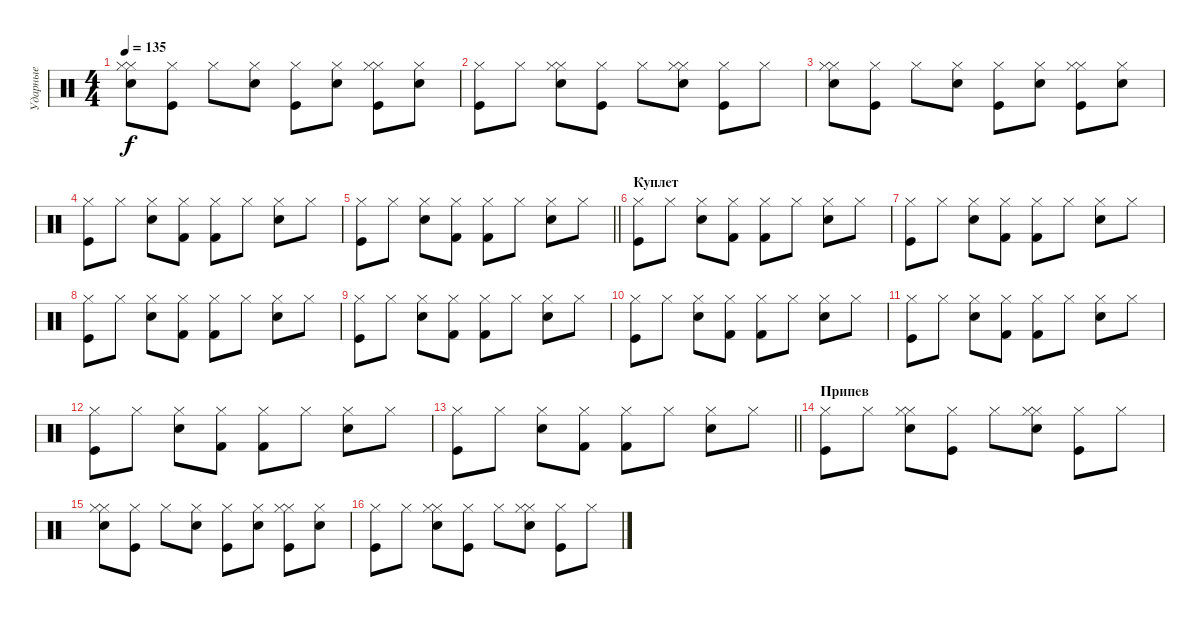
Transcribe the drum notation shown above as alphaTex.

\track ("Ударные" "Ударные") {instrument percussion}
\staff {score}
\articulation defaults
\ts (4 4)
\tempo 135
\clef neutral
\ks c
("Snare (hit) 2" "Hi-Hat (closed)" "Hi-Hat (closed)").8{dy f} ("Hi-Hat (closed)" "Kick (hit)").8 "Hi-Hat (closed)".8 ("Hi-Hat (closed)" "Snare (hit) 2").8 ("Hi-Hat (closed)" "Kick (hit)").8 ("Hi-Hat (closed)" "Snare (hit) 2").8 ("Kick (hit)" "Hi-Hat (closed)" "Hi-Hat (closed)").8 ("Snare (hit) 2" "Hi-Hat (closed)").8 |
("Hi-Hat (closed)" "Kick (hit)").8 "Hi-Hat (closed)".8 ("Snare (hit) 2" "Hi-Hat (closed)" "Hi-Hat (closed)").8 ("Hi-Hat (closed)" "Kick (hit)").8 "Hi-Hat (closed)".8 ("Snare (hit) 2" "Hi-Hat (closed)" "Hi-Hat (closed)").8 ("Hi-Hat (closed)" "Kick (hit)").8 "Hi-Hat (closed)".8 |
("Snare (hit) 2" "Hi-Hat (closed)" "Hi-Hat (closed)").8 ("Hi-Hat (closed)" "Kick (hit)").8 "Hi-Hat (closed)".8 ("Hi-Hat (closed)" "Snare (hit) 2").8 ("Hi-Hat (closed)" "Kick (hit)").8 ("Hi-Hat (closed)" "Snare (hit) 2").8 ("Kick (hit)" "Hi-Hat (closed)" "Hi-Hat (closed)").8 ("Snare (hit) 2" "Hi-Hat (closed)").8 |
("Kick (hit)" "Hi-Hat (closed)").8 "Hi-Hat (closed)".8 ("Snare (hit) 2" "Hi-Hat (closed)").8 ("Hi-Hat (closed)" "Kick (hit) 2").8 ("Hi-Hat (closed)" "Kick (hit) 2").8 "Hi-Hat (closed)".8 ("Hi-Hat (closed)" "Snare (hit) 2").8 "Hi-Hat (closed)".8 |
\barLineRight lightlight
("Kick (hit)" "Hi-Hat (closed)").8 "Hi-Hat (closed)".8 ("Snare (hit) 2" "Hi-Hat (closed)").8 ("Hi-Hat (closed)" "Kick (hit) 2").8 ("Hi-Hat (closed)" "Kick (hit) 2").8 "Hi-Hat (closed)".8 ("Hi-Hat (closed)" "Snare (hit) 2").8 "Hi-Hat (closed)".8 |
\section ("" "Куплет")
("Kick (hit)" "Hi-Hat (closed)").8 "Hi-Hat (closed)".8 ("Snare (hit) 2" "Hi-Hat (closed)").8 ("Hi-Hat (closed)" "Kick (hit) 2").8 ("Hi-Hat (closed)" "Kick (hit) 2").8 "Hi-Hat (closed)".8 ("Hi-Hat (closed)" "Snare (hit) 2").8 "Hi-Hat (closed)".8 |
("Kick (hit)" "Hi-Hat (closed)").8 "Hi-Hat (closed)".8 ("Snare (hit) 2" "Hi-Hat (closed)").8 ("Hi-Hat (closed)" "Kick (hit) 2").8 ("Hi-Hat (closed)" "Kick (hit) 2").8 "Hi-Hat (closed)".8 ("Hi-Hat (closed)" "Snare (hit) 2").8 "Hi-Hat (closed)".8 |
("Kick (hit)" "Hi-Hat (closed)").8 "Hi-Hat (closed)".8 ("Snare (hit) 2" "Hi-Hat (closed)").8 ("Hi-Hat (closed)" "Kick (hit) 2").8 ("Hi-Hat (closed)" "Kick (hit) 2").8 "Hi-Hat (closed)".8 ("Hi-Hat (closed)" "Snare (hit) 2").8 "Hi-Hat (closed)".8 |
("Kick (hit)" "Hi-Hat (closed)").8 "Hi-Hat (closed)".8 ("Snare (hit) 2" "Hi-Hat (closed)").8 ("Hi-Hat (closed)" "Kick (hit) 2").8 ("Hi-Hat (closed)" "Kick (hit) 2").8 "Hi-Hat (closed)".8 ("Hi-Hat (closed)" "Snare (hit) 2").8 "Hi-Hat (closed)".8 |
("Kick (hit)" "Hi-Hat (closed)").8 "Hi-Hat (closed)".8 ("Snare (hit) 2" "Hi-Hat (closed)").8 ("Hi-Hat (closed)" "Kick (hit) 2").8 ("Hi-Hat (closed)" "Kick (hit) 2").8 "Hi-Hat (closed)".8 ("Hi-Hat (closed)" "Snare (hit) 2").8 "Hi-Hat (closed)".8 |
("Kick (hit)" "Hi-Hat (closed)").8 "Hi-Hat (closed)".8 ("Snare (hit) 2" "Hi-Hat (closed)").8 ("Hi-Hat (closed)" "Kick (hit) 2").8 ("Hi-Hat (closed)" "Kick (hit) 2").8 "Hi-Hat (closed)".8 ("Hi-Hat (closed)" "Snare (hit) 2").8 "Hi-Hat (closed)".8 |
("Kick (hit)" "Hi-Hat (closed)").8 "Hi-Hat (closed)".8 ("Snare (hit) 2" "Hi-Hat (closed)").8 ("Hi-Hat (closed)" "Kick (hit) 2").8 ("Hi-Hat (closed)" "Kick (hit) 2").8 "Hi-Hat (closed)".8 ("Hi-Hat (closed)" "Snare (hit) 2").8 "Hi-Hat (closed)".8 |
\barLineRight lightlight
("Kick (hit)" "Hi-Hat (closed)").8 "Hi-Hat (closed)".8 ("Snare (hit) 2" "Hi-Hat (closed)").8 ("Hi-Hat (closed)" "Kick (hit) 2").8 ("Hi-Hat (closed)" "Kick (hit) 2").8 "Hi-Hat (closed)".8 ("Hi-Hat (closed)" "Snare (hit) 2").8 "Hi-Hat (closed)".8 |
\section ("" "Припев")
("Hi-Hat (closed)" "Kick (hit)").8 "Hi-Hat (closed)".8 ("Snare (hit) 2" "Hi-Hat (closed)" "Hi-Hat (closed)").8 ("Hi-Hat (closed)" "Kick (hit)").8 "Hi-Hat (closed)".8 ("Snare (hit) 2" "Hi-Hat (closed)" "Hi-Hat (closed)").8 ("Hi-Hat (closed)" "Kick (hit)").8 "Hi-Hat (closed)".8 |
("Snare (hit) 2" "Hi-Hat (closed)" "Hi-Hat (closed)").8 ("Hi-Hat (closed)" "Kick (hit)").8 "Hi-Hat (closed)".8 ("Hi-Hat (closed)" "Snare (hit) 2").8 ("Hi-Hat (closed)" "Kick (hit)").8 ("Hi-Hat (closed)" "Snare (hit) 2").8 ("Kick (hit)" "Hi-Hat (closed)" "Hi-Hat (closed)").8 ("Snare (hit) 2" "Hi-Hat (closed)").8 |
("Hi-Hat (closed)" "Kick (hit)").8 "Hi-Hat (closed)".8 ("Snare (hit) 2" "Hi-Hat (closed)" "Hi-Hat (closed)").8 ("Hi-Hat (closed)" "Kick (hit)").8 "Hi-Hat (closed)".8 ("Snare (hit) 2" "Hi-Hat (closed)" "Hi-Hat (closed)").8 ("Hi-Hat (closed)" "Kick (hit)").8 "Hi-Hat (closed)".8
